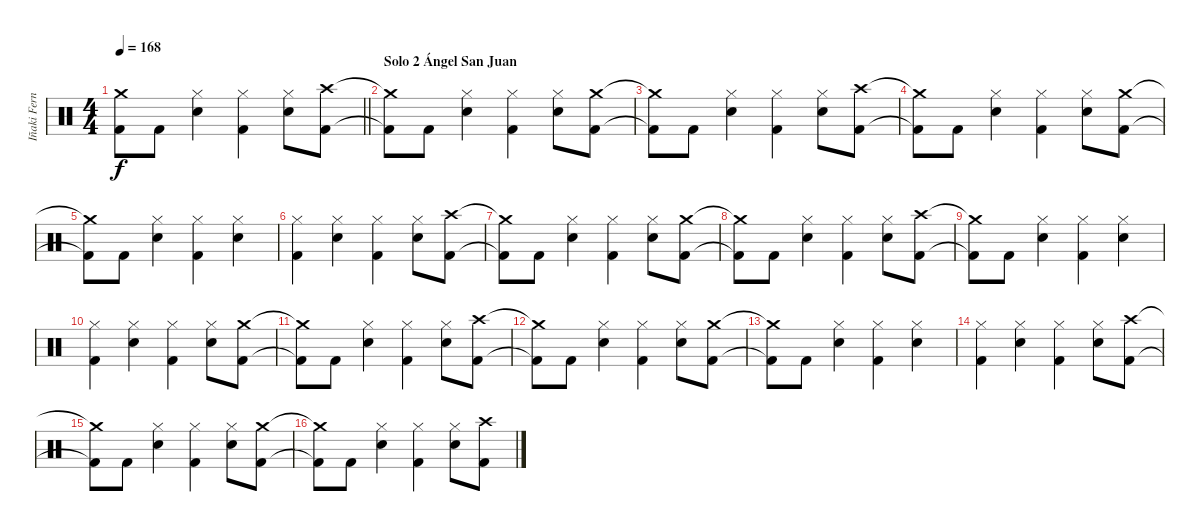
\track ("Iñaki Fernández" "Iñaki Fern") {instrument percussion}
\staff {score}
\articulation defaults
\ts (4 4)
\tempo 168
\clef neutral
\barLineRight lightlight
\ks c
("Crash medium (hit)"{t} "Kick (hit) 2"{t}).8{dy f} "Kick (hit) 2".8 ("Hi-Hat (closed)" "Snare (hit) 2").4 ("Hi-Hat (closed)" "Kick (hit) 2").4 ("Hi-Hat (closed)" "Snare (hit) 2").8 ("Crash high (hit)" "Kick (hit) 2").8 |
\section ("" "Solo 2 Ángel San Juan")
("Crash medium (hit)"{t} "Kick (hit) 2"{t}).8 "Kick (hit) 2".8 ("Hi-Hat (closed)" "Snare (hit) 2").4 ("Hi-Hat (closed)" "Kick (hit) 2").4 ("Hi-Hat (closed)" "Snare (hit) 2").8 ("Crash medium (hit)" "Kick (hit) 2").8 |
("Crash medium (hit)"{t} "Kick (hit) 2"{t}).8 "Kick (hit) 2".8 ("Hi-Hat (closed)" "Snare (hit) 2").4 ("Hi-Hat (closed)" "Kick (hit) 2").4 ("Hi-Hat (closed)" "Snare (hit) 2").8 ("Crash high (hit)" "Kick (hit) 2").8 |
("Crash medium (hit)"{t} "Kick (hit) 2"{t}).8 "Kick (hit) 2".8 ("Hi-Hat (closed)" "Snare (hit) 2").4 ("Hi-Hat (closed)" "Kick (hit) 2").4 ("Hi-Hat (closed)" "Snare (hit) 2").8 ("Crash medium (hit)" "Kick (hit) 2").8 |
("Crash medium (hit)"{t} "Kick (hit) 2"{t}).8 "Kick (hit) 2".8 ("Hi-Hat (closed)" "Snare (hit) 2").4 ("Hi-Hat (closed)" "Kick (hit) 2").4 ("Hi-Hat (closed)" "Snare (hit) 2").4 |
("Hi-Hat (closed)" "Kick (hit) 2").4 ("Hi-Hat (closed)" "Snare (hit) 2").4 ("Hi-Hat (closed)" "Kick (hit) 2").4 ("Hi-Hat (closed)" "Snare (hit) 2").8 ("Crash high (hit)" "Kick (hit) 2").8 |
("Crash medium (hit)"{t} "Kick (hit) 2"{t}).8 "Kick (hit) 2".8 ("Hi-Hat (closed)" "Snare (hit) 2").4 ("Hi-Hat (closed)" "Kick (hit) 2").4 ("Hi-Hat (closed)" "Snare (hit) 2").8 ("Crash medium (hit)" "Kick (hit) 2").8 |
("Crash medium (hit)"{t} "Kick (hit) 2"{t}).8 "Kick (hit) 2".8 ("Hi-Hat (closed)" "Snare (hit) 2").4 ("Hi-Hat (closed)" "Kick (hit) 2").4 ("Hi-Hat (closed)" "Snare (hit) 2").8 ("Crash high (hit)" "Kick (hit) 2").8 |
("Crash medium (hit)"{t} "Kick (hit) 2"{t}).8 "Kick (hit) 2".8 ("Hi-Hat (closed)" "Snare (hit) 2").4 ("Hi-Hat (closed)" "Kick (hit) 2").4 ("Hi-Hat (closed)" "Snare (hit) 2").4 |
("Hi-Hat (closed)" "Kick (hit) 2").4 ("Hi-Hat (closed)" "Snare (hit) 2").4 ("Hi-Hat (closed)" "Kick (hit) 2").4 ("Hi-Hat (closed)" "Snare (hit) 2").8 ("Crash medium (hit)" "Kick (hit) 2").8 |
("Crash medium (hit)"{t} "Kick (hit) 2"{t}).8 "Kick (hit) 2".8 ("Hi-Hat (closed)" "Snare (hit) 2").4 ("Hi-Hat (closed)" "Kick (hit) 2").4 ("Hi-Hat (closed)" "Snare (hit) 2").8 ("Crash high (hit)" "Kick (hit) 2").8 |
("Crash medium (hit)"{t} "Kick (hit) 2"{t}).8 "Kick (hit) 2".8 ("Hi-Hat (closed)" "Snare (hit) 2").4 ("Hi-Hat (closed)" "Kick (hit) 2").4 ("Hi-Hat (closed)" "Snare (hit) 2").8 ("Crash medium (hit)" "Kick (hit) 2").8 |
("Crash medium (hit)"{t} "Kick (hit) 2"{t}).8 "Kick (hit) 2".8 ("Hi-Hat (closed)" "Snare (hit) 2").4 ("Hi-Hat (closed)" "Kick (hit) 2").4 ("Hi-Hat (closed)" "Snare (hit) 2").4 |
("Hi-Hat (closed)" "Kick (hit) 2").4 ("Hi-Hat (closed)" "Snare (hit) 2").4 ("Hi-Hat (closed)" "Kick (hit) 2").4 ("Hi-Hat (closed)" "Snare (hit) 2").8 ("Crash high (hit)" "Kick (hit) 2").8 |
("Crash medium (hit)"{t} "Kick (hit) 2"{t}).8 "Kick (hit) 2".8 ("Hi-Hat (closed)" "Snare (hit) 2").4 ("Hi-Hat (closed)" "Kick (hit) 2").4 ("Hi-Hat (closed)" "Snare (hit) 2").8 ("Crash medium (hit)" "Kick (hit) 2").8 |
("Crash medium (hit)"{t} "Kick (hit) 2"{t}).8 "Kick (hit) 2".8 ("Hi-Hat (closed)" "Snare (hit) 2").4 ("Hi-Hat (closed)" "Kick (hit) 2").4 ("Hi-Hat (closed)" "Snare (hit) 2").8 ("Crash high (hit)" "Kick (hit) 2").8
